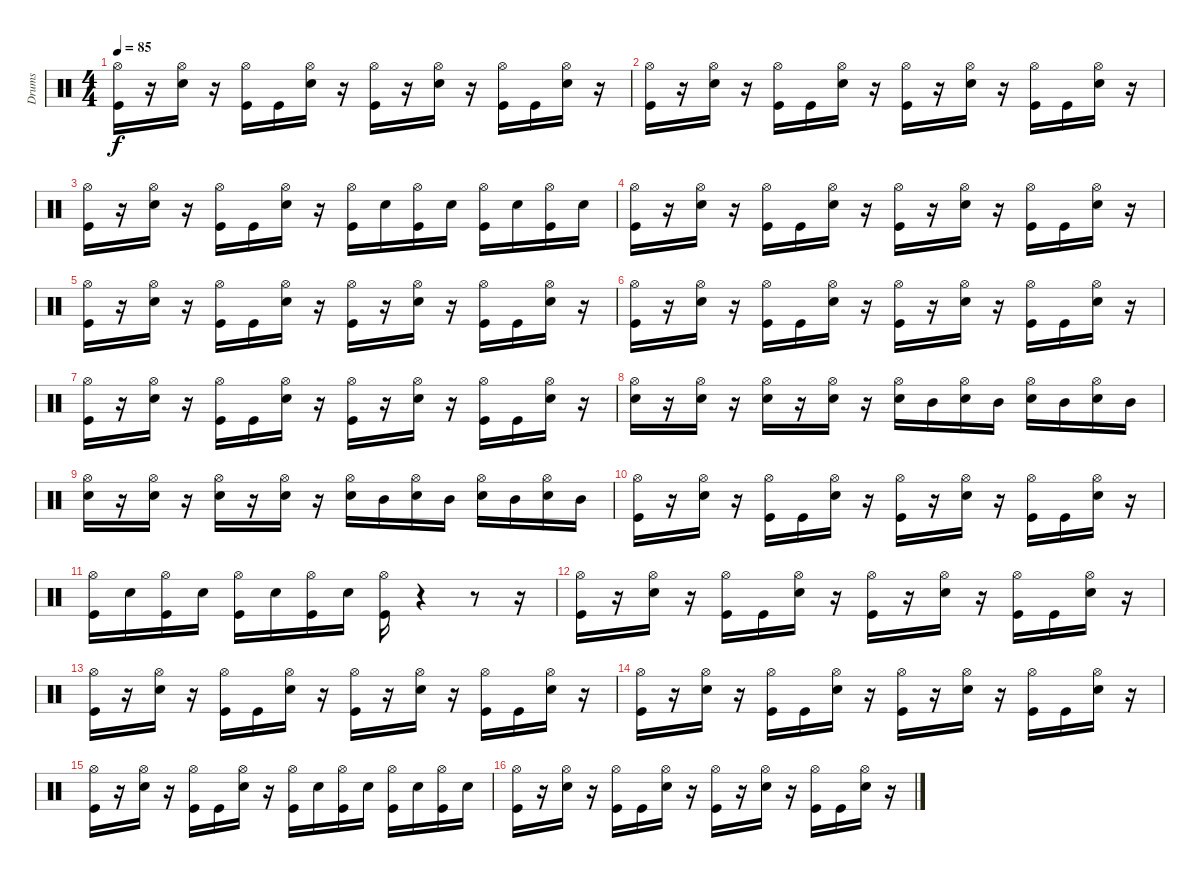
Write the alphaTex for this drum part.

\track ("Drums" "Drums") {instrument percussion}
\staff {score}
\articulation defaults
\ts (4 4)
\tempo 85
\clef neutral
\ks c
("Kick (hit)" "Hi-Hat (open)").16{dy f} r.16 ("Snare (hit) 2" "Hi-Hat (open)").16 r.16 ("Kick (hit)" "Hi-Hat (open)").16 "Kick (hit)".16 ("Snare (hit) 2" "Hi-Hat (open)").16 r.16 ("Kick (hit)" "Hi-Hat (open)").16 r.16 ("Snare (hit) 2" "Hi-Hat (open)").16 r.16 ("Kick (hit)" "Hi-Hat (open)").16 "Kick (hit)".16 ("Snare (hit) 2" "Hi-Hat (open)").16 r.16 |
("Kick (hit)" "Hi-Hat (open)").16 r.16 ("Snare (hit) 2" "Hi-Hat (open)").16 r.16 ("Kick (hit)" "Hi-Hat (open)").16 "Kick (hit)".16 ("Snare (hit) 2" "Hi-Hat (open)").16 r.16 ("Kick (hit)" "Hi-Hat (open)").16 r.16 ("Snare (hit) 2" "Hi-Hat (open)").16 r.16 ("Kick (hit)" "Hi-Hat (open)").16 "Kick (hit)".16 ("Snare (hit) 2" "Hi-Hat (open)").16 r.16 |
("Kick (hit)" "Hi-Hat (open)").16 r.16 ("Hi-Hat (open)" "Snare (hit) 2").16 r.16 ("Kick (hit)" "Hi-Hat (open)").16 "Kick (hit)".16 ("Snare (hit) 2" "Hi-Hat (open)").16 r.16 ("Kick (hit)" "Hi-Hat (open)").16 "Snare (hit) 2".16 ("Hi-Hat (open)" "Kick (hit)").16 "Snare (hit) 2".16 ("Kick (hit)" "Hi-Hat (open)").16 "Snare (hit) 2".16 ("Hi-Hat (open)" "Kick (hit)").16 "Snare (hit) 2".16 |
("Kick (hit)" "Hi-Hat (open)").16 r.16 ("Snare (hit) 2" "Hi-Hat (open)").16 r.16 ("Kick (hit)" "Hi-Hat (open)").16 "Kick (hit)".16 ("Snare (hit) 2" "Hi-Hat (open)").16 r.16 ("Kick (hit)" "Hi-Hat (open)").16 r.16 ("Snare (hit) 2" "Hi-Hat (open)").16 r.16 ("Kick (hit)" "Hi-Hat (open)").16 "Kick (hit)".16 ("Snare (hit) 2" "Hi-Hat (open)").16 r.16 |
("Kick (hit)" "Hi-Hat (open)").16 r.16 ("Snare (hit) 2" "Hi-Hat (open)").16 r.16 ("Kick (hit)" "Hi-Hat (open)").16 "Kick (hit)".16 ("Snare (hit) 2" "Hi-Hat (open)").16 r.16 ("Kick (hit)" "Hi-Hat (open)").16 r.16 ("Snare (hit) 2" "Hi-Hat (open)").16 r.16 ("Kick (hit)" "Hi-Hat (open)").16 "Kick (hit)".16 ("Snare (hit) 2" "Hi-Hat (open)").16 r.16 |
("Kick (hit)" "Hi-Hat (open)").16 r.16 ("Snare (hit) 2" "Hi-Hat (open)").16 r.16 ("Kick (hit)" "Hi-Hat (open)").16 "Kick (hit)".16 ("Snare (hit) 2" "Hi-Hat (open)").16 r.16 ("Kick (hit)" "Hi-Hat (open)").16 r.16 ("Snare (hit) 2" "Hi-Hat (open)").16 r.16 ("Kick (hit)" "Hi-Hat (open)").16 "Kick (hit)".16 ("Snare (hit) 2" "Hi-Hat (open)").16 r.16 |
("Kick (hit)" "Hi-Hat (open)").16 r.16 ("Snare (hit) 2" "Hi-Hat (open)").16 r.16 ("Kick (hit)" "Hi-Hat (open)").16 "Kick (hit)".16 ("Snare (hit) 2" "Hi-Hat (open)").16 r.16 ("Kick (hit)" "Hi-Hat (open)").16 r.16 ("Snare (hit) 2" "Hi-Hat (open)").16 r.16 ("Kick (hit)" "Hi-Hat (open)").16 "Kick (hit)".16 ("Snare (hit) 2" "Hi-Hat (open)").16 r.16 |
("Hi-Hat (open)" "Snare (hit) 2").16 r.16 ("Hi-Hat (open)" "Snare (hit) 2").16 r.16 ("Hi-Hat (open)" "Snare (hit) 2").16 r.16 ("Hi-Hat (open)" "Snare (hit) 2").16 r.16 ("Hi-Hat (open)" "Snare (hit) 2").16 "Mid Tom (hit)".16 ("Hi-Hat (open)" "Snare (hit) 2").16 "Mid Tom (hit)".16 ("Hi-Hat (open)" "Snare (hit) 2").16 "Mid Tom (hit)".16 ("Snare (hit) 2" "Hi-Hat (open)").16 "Mid Tom (hit)".16 |
("Hi-Hat (open)" "Snare (hit) 2").16 r.16 ("Hi-Hat (open)" "Snare (hit) 2").16 r.16 ("Hi-Hat (open)" "Snare (hit) 2").16 r.16 ("Hi-Hat (open)" "Snare (hit) 2").16 r.16 ("Hi-Hat (open)" "Snare (hit) 2").16 "Mid Tom (hit)".16 ("Hi-Hat (open)" "Snare (hit) 2").16 "Mid Tom (hit)".16 ("Hi-Hat (open)" "Snare (hit) 2").16 "Mid Tom (hit)".16 ("Snare (hit) 2" "Hi-Hat (open)").16 "Mid Tom (hit)".16 |
("Kick (hit)" "Hi-Hat (open)").16 r.16 ("Snare (hit) 2" "Hi-Hat (open)").16 r.16 ("Kick (hit)" "Hi-Hat (open)").16 "Kick (hit)".16 ("Snare (hit) 2" "Hi-Hat (open)").16 r.16 ("Kick (hit)" "Hi-Hat (open)").16 r.16 ("Snare (hit) 2" "Hi-Hat (open)").16 r.16 ("Kick (hit)" "Hi-Hat (open)").16 "Kick (hit)".16 ("Snare (hit) 2" "Hi-Hat (open)").16 r.16 |
("Hi-Hat (open)" "Kick (hit)").16 "Snare (hit) 2".16 ("Hi-Hat (open)" "Kick (hit)").16 "Snare (hit) 2".16 ("Kick (hit)" "Hi-Hat (open)").16 "Snare (hit) 2".16 ("Hi-Hat (open)" "Kick (hit)").16 "Snare (hit) 2".16 ("Hi-Hat (open)" "Kick (hit)").16 r.4 r.8 r.16 |
("Kick (hit)" "Hi-Hat (open)").16 r.16 ("Snare (hit) 2" "Hi-Hat (open)").16 r.16 ("Kick (hit)" "Hi-Hat (open)").16 "Kick (hit)".16 ("Snare (hit) 2" "Hi-Hat (open)").16 r.16 ("Kick (hit)" "Hi-Hat (open)").16 r.16 ("Snare (hit) 2" "Hi-Hat (open)").16 r.16 ("Kick (hit)" "Hi-Hat (open)").16 "Kick (hit)".16 ("Snare (hit) 2" "Hi-Hat (open)").16 r.16 |
("Kick (hit)" "Hi-Hat (open)").16 r.16 ("Snare (hit) 2" "Hi-Hat (open)").16 r.16 ("Kick (hit)" "Hi-Hat (open)").16 "Kick (hit)".16 ("Snare (hit) 2" "Hi-Hat (open)").16 r.16 ("Kick (hit)" "Hi-Hat (open)").16 r.16 ("Snare (hit) 2" "Hi-Hat (open)").16 r.16 ("Kick (hit)" "Hi-Hat (open)").16 "Kick (hit)".16 ("Snare (hit) 2" "Hi-Hat (open)").16 r.16 |
("Kick (hit)" "Hi-Hat (open)").16 r.16 ("Snare (hit) 2" "Hi-Hat (open)").16 r.16 ("Kick (hit)" "Hi-Hat (open)").16 "Kick (hit)".16 ("Snare (hit) 2" "Hi-Hat (open)").16 r.16 ("Kick (hit)" "Hi-Hat (open)").16 r.16 ("Snare (hit) 2" "Hi-Hat (open)").16 r.16 ("Kick (hit)" "Hi-Hat (open)").16 "Kick (hit)".16 ("Snare (hit) 2" "Hi-Hat (open)").16 r.16 |
("Kick (hit)" "Hi-Hat (open)").16 r.16 ("Snare (hit) 2" "Hi-Hat (open)").16 r.16 ("Kick (hit)" "Hi-Hat (open)").16 "Kick (hit)".16 ("Snare (hit) 2" "Hi-Hat (open)").16 r.16 ("Kick (hit)" "Hi-Hat (open)").16 "Snare (hit) 2".16 ("Hi-Hat (open)" "Kick (hit)").16 "Snare (hit) 2".16 ("Kick (hit)" "Hi-Hat (open)").16 "Snare (hit) 2".16 ("Hi-Hat (open)" "Kick (hit)").16 "Snare (hit) 2".16 |
("Kick (hit)" "Hi-Hat (open)").16 r.16 ("Snare (hit) 2" "Hi-Hat (open)").16 r.16 ("Kick (hit)" "Hi-Hat (open)").16 "Kick (hit)".16 ("Snare (hit) 2" "Hi-Hat (open)").16 r.16 ("Kick (hit)" "Hi-Hat (open)").16 r.16 ("Snare (hit) 2" "Hi-Hat (open)").16 r.16 ("Kick (hit)" "Hi-Hat (open)").16 "Kick (hit)".16 ("Snare (hit) 2" "Hi-Hat (open)").16 r.16
